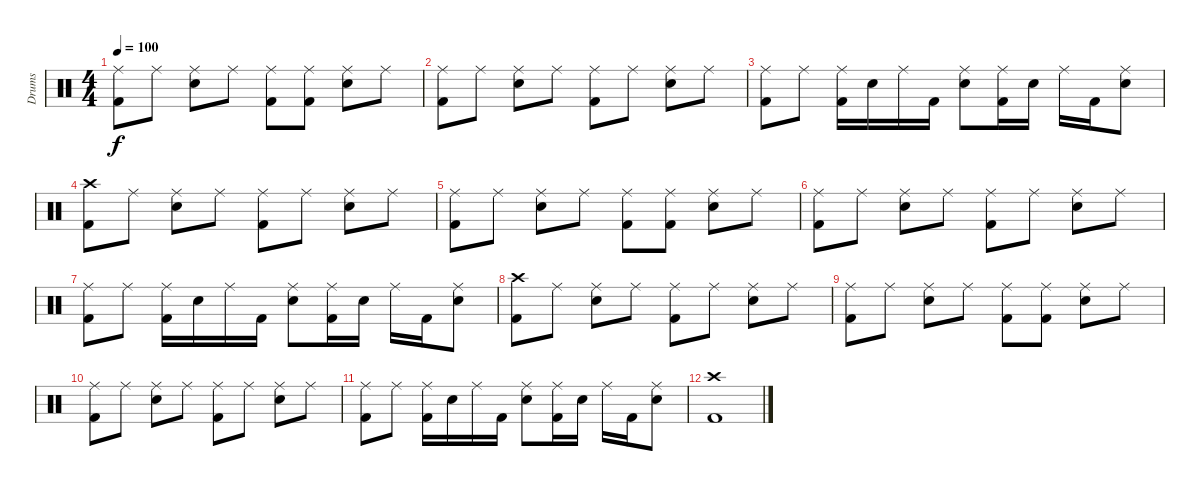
\track ("Drums" "Drums") {instrument percussion}
\staff {score}
\articulation defaults
\ts (4 4)
\tempo 100
\clef neutral
\ks c
("Ride (middle)" "Kick (hit) 2").8{dy f} "Ride (middle)".8 ("Ride (middle)" "Snare (hit) 2").8 "Ride (middle)".8 ("Ride (middle)" "Kick (hit) 2").8 ("Ride (middle)" "Kick (hit) 2").8 ("Ride (middle)" "Snare (hit) 2").8 "Ride (middle)".8 |
("Ride (middle)" "Kick (hit) 2").8 "Ride (middle)".8 ("Ride (middle)" "Snare (hit) 2").8 "Ride (middle)".8 ("Ride (middle)" "Kick (hit) 2").8 "Ride (middle)".8 ("Ride (middle)" "Snare (hit) 2").8 "Ride (middle)".8 |
("Ride (middle)" "Kick (hit) 2").8 "Ride (middle)".8 ("Ride (middle)" "Kick (hit) 2").16 "Snare (hit) 2".16 "Ride (middle)".16 "Kick (hit) 2".16 ("Ride (middle)" "Snare (hit) 2").8 ("Ride (middle)" "Kick (hit) 2").16 "Snare (hit) 2".16 "Ride (middle)".16 "Kick (hit) 2".16 ("Ride (middle)" "Snare (hit) 2").8 |
("Crash high (hit)" "Kick (hit) 2").8 "Ride (middle)".8 ("Ride (middle)" "Snare (hit) 2").8 "Ride (middle)".8 ("Ride (middle)" "Kick (hit) 2").8 "Ride (middle)".8 ("Ride (middle)" "Snare (hit) 2").8 "Ride (middle)".8 |
("Ride (middle)" "Kick (hit) 2").8 "Ride (middle)".8 ("Ride (middle)" "Snare (hit) 2").8 "Ride (middle)".8 ("Ride (middle)" "Kick (hit) 2").8 ("Ride (middle)" "Kick (hit) 2").8 ("Ride (middle)" "Snare (hit) 2").8 "Ride (middle)".8 |
("Ride (middle)" "Kick (hit) 2").8 "Ride (middle)".8 ("Ride (middle)" "Snare (hit) 2").8 "Ride (middle)".8 ("Ride (middle)" "Kick (hit) 2").8 "Ride (middle)".8 ("Ride (middle)" "Snare (hit) 2").8 "Ride (middle)".8 |
("Ride (middle)" "Kick (hit) 2").8 "Ride (middle)".8 ("Ride (middle)" "Kick (hit) 2").16 "Snare (hit) 2".16 "Ride (middle)".16 "Kick (hit) 2".16 ("Ride (middle)" "Snare (hit) 2").8 ("Ride (middle)" "Kick (hit) 2").16 "Snare (hit) 2".16 "Ride (middle)".16 "Kick (hit) 2".16 ("Ride (middle)" "Snare (hit) 2").8 |
("Crash high (hit)" "Kick (hit) 2").8 "Ride (middle)".8 ("Ride (middle)" "Snare (hit) 2").8 "Ride (middle)".8 ("Ride (middle)" "Kick (hit) 2").8 "Ride (middle)".8 ("Ride (middle)" "Snare (hit) 2").8 "Ride (middle)".8 |
("Ride (middle)" "Kick (hit) 2").8 "Ride (middle)".8 ("Ride (middle)" "Snare (hit) 2").8 "Ride (middle)".8 ("Ride (middle)" "Kick (hit) 2").8 ("Ride (middle)" "Kick (hit) 2").8 ("Ride (middle)" "Snare (hit) 2").8 "Ride (middle)".8 |
("Ride (middle)" "Kick (hit) 2").8 "Ride (middle)".8 ("Ride (middle)" "Snare (hit) 2").8 "Ride (middle)".8 ("Ride (middle)" "Kick (hit) 2").8 "Ride (middle)".8 ("Ride (middle)" "Snare (hit) 2").8 "Ride (middle)".8 |
("Ride (middle)" "Kick (hit) 2").8 "Ride (middle)".8 ("Ride (middle)" "Kick (hit) 2").16 "Snare (hit) 2".16 "Ride (middle)".16 "Kick (hit) 2".16 ("Ride (middle)" "Snare (hit) 2").8 ("Ride (middle)" "Kick (hit) 2").16 "Snare (hit) 2".16 "Ride (middle)".16 "Kick (hit) 2".16 ("Ride (middle)" "Snare (hit) 2").8 |
("Crash high (hit)" "Kick (hit) 2").1
